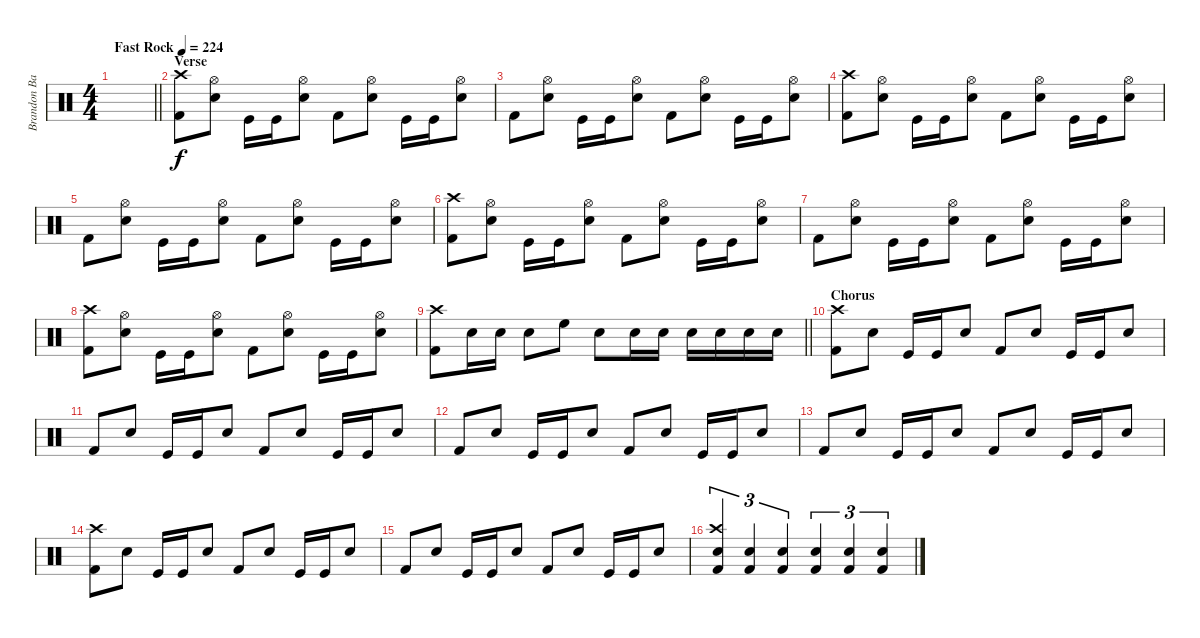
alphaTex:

\track ("Brandon Barnes" "Brandon Ba") {instrument percussion}
\staff {score}
\articulation defaults
\ts (4 4)
\tempo (224 "Fast Rock")
\clef neutral
\barLineRight lightlight
\ks c
|
\section ("" "Verse")
("Kick (hit) 2" "Crash high (hit)").8 ("Snare (hit) 2" "Hi-Hat (open)").8 "Kick (hit)".16 "Kick (hit)".16 ("Snare (hit) 2" "Hi-Hat (open)").8 "Kick (hit) 2".8 ("Snare (hit) 2" "Hi-Hat (open)").8 "Kick (hit)".16 "Kick (hit)".16 ("Snare (hit) 2" "Hi-Hat (open)").8 |
"Kick (hit) 2".8 ("Snare (hit) 2" "Hi-Hat (open)").8 "Kick (hit)".16 "Kick (hit)".16 ("Snare (hit) 2" "Hi-Hat (open)").8 "Kick (hit) 2".8 ("Snare (hit) 2" "Hi-Hat (open)").8 "Kick (hit)".16 "Kick (hit)".16 ("Snare (hit) 2" "Hi-Hat (open)").8 |
("Kick (hit) 2" "Crash high (hit)").8 ("Snare (hit) 2" "Hi-Hat (open)").8 "Kick (hit)".16 "Kick (hit)".16 ("Snare (hit) 2" "Hi-Hat (open)").8 "Kick (hit) 2".8 ("Snare (hit) 2" "Hi-Hat (open)").8 "Kick (hit)".16 "Kick (hit)".16 ("Snare (hit) 2" "Hi-Hat (open)").8 |
"Kick (hit) 2".8 ("Snare (hit) 2" "Hi-Hat (open)").8 "Kick (hit)".16 "Kick (hit)".16 ("Snare (hit) 2" "Hi-Hat (open)").8 "Kick (hit) 2".8 ("Snare (hit) 2" "Hi-Hat (open)").8 "Kick (hit)".16 "Kick (hit)".16 ("Snare (hit) 2" "Hi-Hat (open)").8 |
("Kick (hit) 2" "Crash high (hit)").8 ("Snare (hit) 2" "Hi-Hat (open)").8 "Kick (hit)".16 "Kick (hit)".16 ("Snare (hit) 2" "Hi-Hat (open)").8 "Kick (hit) 2".8 ("Snare (hit) 2" "Hi-Hat (open)").8 "Kick (hit)".16 "Kick (hit)".16 ("Snare (hit) 2" "Hi-Hat (open)").8 |
"Kick (hit) 2".8 ("Snare (hit) 2" "Hi-Hat (open)").8 "Kick (hit)".16 "Kick (hit)".16 ("Snare (hit) 2" "Hi-Hat (open)").8 "Kick (hit) 2".8 ("Snare (hit) 2" "Hi-Hat (open)").8 "Kick (hit)".16 "Kick (hit)".16 ("Snare (hit) 2" "Hi-Hat (open)").8 |
("Kick (hit) 2" "Crash high (hit)").8 ("Snare (hit) 2" "Hi-Hat (open)").8 "Kick (hit)".16 "Kick (hit)".16 ("Snare (hit) 2" "Hi-Hat (open)").8 "Kick (hit) 2".8 ("Snare (hit) 2" "Hi-Hat (open)").8 "Kick (hit)".16 "Kick (hit)".16 ("Snare (hit) 2" "Hi-Hat (open)").8 |
\barLineRight lightlight
("Kick (hit) 2" "Crash high (hit)").8 "Snare (hit) 2".16 "Snare (hit) 2".16 "Snare (hit) 2".8 "High Floor Tom (hit)".8 "Snare (hit) 2".8 "Snare (hit) 2".16 "Snare (hit) 2".16 "Snare (hit) 2".16 "Snare (hit) 2".16 "Snare (hit) 2".16 "Snare (hit) 2".16 |
\section ("" "Chorus")
("Kick (hit) 2" "Crash high (hit)").8 "Snare (hit) 2".8 "Kick (hit)".16 "Kick (hit)".16 "Snare (hit) 2".8 "Kick (hit) 2".8 "Snare (hit) 2".8 "Kick (hit)".16 "Kick (hit)".16 "Snare (hit) 2".8 |
"Kick (hit) 2".8 "Snare (hit) 2".8 "Kick (hit)".16 "Kick (hit)".16 "Snare (hit) 2".8 "Kick (hit) 2".8 "Snare (hit) 2".8 "Kick (hit)".16 "Kick (hit)".16 "Snare (hit) 2".8 |
"Kick (hit) 2".8 "Snare (hit) 2".8 "Kick (hit)".16 "Kick (hit)".16 "Snare (hit) 2".8 "Kick (hit) 2".8 "Snare (hit) 2".8 "Kick (hit)".16 "Kick (hit)".16 "Snare (hit) 2".8 |
"Kick (hit) 2".8 "Snare (hit) 2".8 "Kick (hit)".16 "Kick (hit)".16 "Snare (hit) 2".8 "Kick (hit) 2".8 "Snare (hit) 2".8 "Kick (hit)".16 "Kick (hit)".16 "Snare (hit) 2".8 |
("Kick (hit) 2" "Crash high (hit)").8 "Snare (hit) 2".8 "Kick (hit)".16 "Kick (hit)".16 "Snare (hit) 2".8 "Kick (hit) 2".8 "Snare (hit) 2".8 "Kick (hit)".16 "Kick (hit)".16 "Snare (hit) 2".8 |
"Kick (hit) 2".8 "Snare (hit) 2".8 "Kick (hit)".16 "Kick (hit)".16 "Snare (hit) 2".8 "Kick (hit) 2".8 "Snare (hit) 2".8 "Kick (hit)".16 "Kick (hit)".16 "Snare (hit) 2".8 |
("Kick (hit) 2" "Crash high (hit)" "Snare (hit) 2").4{tu (3 2)} ("Kick (hit) 2" "Snare (hit) 2").4{tu (3 2)} ("Kick (hit) 2" "Snare (hit) 2").4{tu (3 2)} ("Kick (hit) 2" "Snare (hit) 2").4{tu (3 2)} ("Kick (hit) 2" "Snare (hit) 2").4{tu (3 2)} ("Kick (hit) 2" "Snare (hit) 2").4{tu (3 2)}
